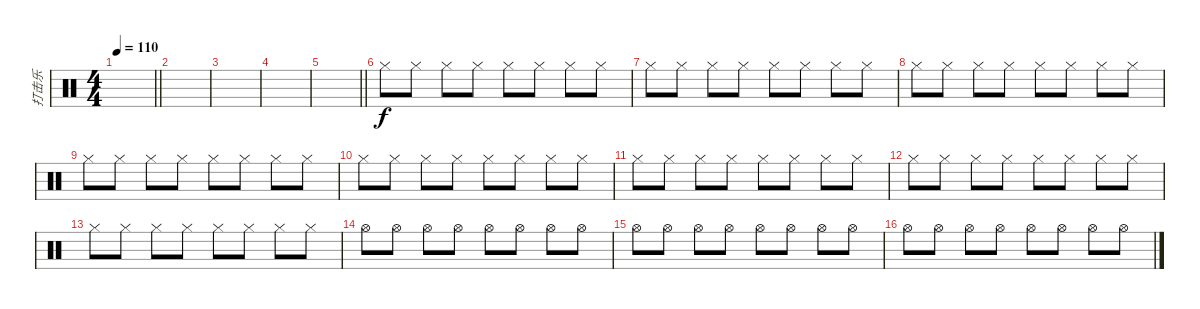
\track ("打击乐" "打击乐") {instrument percussion}
\staff {score}
\articulation defaults
\ts (4 4)
\tempo 110
\clef neutral
\barLineRight lightlight
\ks c
|
|
|
|
\barLineRight lightlight
|
"Hi-Hat (closed)".8 "Hi-Hat (closed)".8 "Hi-Hat (closed)".8 "Hi-Hat (closed)".8 "Hi-Hat (closed)".8 "Hi-Hat (closed)".8 "Hi-Hat (closed)".8 "Hi-Hat (closed)".8 |
"Hi-Hat (closed)".8 "Hi-Hat (closed)".8 "Hi-Hat (closed)".8 "Hi-Hat (closed)".8 "Hi-Hat (closed)".8 "Hi-Hat (closed)".8 "Hi-Hat (closed)".8 "Hi-Hat (closed)".8 |
"Hi-Hat (closed)".8 "Hi-Hat (closed)".8 "Hi-Hat (closed)".8 "Hi-Hat (closed)".8 "Hi-Hat (closed)".8 "Hi-Hat (closed)".8 "Hi-Hat (closed)".8 "Hi-Hat (closed)".8 |
"Hi-Hat (closed)".8 "Hi-Hat (closed)".8 "Hi-Hat (closed)".8 "Hi-Hat (closed)".8 "Hi-Hat (closed)".8 "Hi-Hat (closed)".8 "Hi-Hat (closed)".8 "Hi-Hat (closed)".8 |
"Hi-Hat (closed)".8 "Hi-Hat (closed)".8 "Hi-Hat (closed)".8 "Hi-Hat (closed)".8 "Hi-Hat (closed)".8 "Hi-Hat (closed)".8 "Hi-Hat (closed)".8 "Hi-Hat (closed)".8 |
"Hi-Hat (closed)".8 "Hi-Hat (closed)".8 "Hi-Hat (closed)".8 "Hi-Hat (closed)".8 "Hi-Hat (closed)".8 "Hi-Hat (closed)".8 "Hi-Hat (closed)".8 "Hi-Hat (closed)".8 |
"Hi-Hat (closed)".8 "Hi-Hat (closed)".8 "Hi-Hat (closed)".8 "Hi-Hat (closed)".8 "Hi-Hat (closed)".8 "Hi-Hat (closed)".8 "Hi-Hat (closed)".8 "Hi-Hat (closed)".8 |
"Hi-Hat (closed)".8 "Hi-Hat (closed)".8 "Hi-Hat (closed)".8 "Hi-Hat (closed)".8 "Hi-Hat (closed)".8 "Hi-Hat (closed)".8 "Hi-Hat (closed)".8 "Hi-Hat (closed)".8 |
"Hi-Hat (open)".8 "Hi-Hat (open)".8 "Hi-Hat (open)".8 "Hi-Hat (open)".8 "Hi-Hat (open)".8 "Hi-Hat (open)".8 "Hi-Hat (open)".8 "Hi-Hat (open)".8 |
"Hi-Hat (open)".8 "Hi-Hat (open)".8 "Hi-Hat (open)".8 "Hi-Hat (open)".8 "Hi-Hat (open)".8 "Hi-Hat (open)".8 "Hi-Hat (open)".8 "Hi-Hat (open)".8 |
"Hi-Hat (open)".8 "Hi-Hat (open)".8 "Hi-Hat (open)".8 "Hi-Hat (open)".8 "Hi-Hat (open)".8 "Hi-Hat (open)".8 "Hi-Hat (open)".8 "Hi-Hat (open)".8
